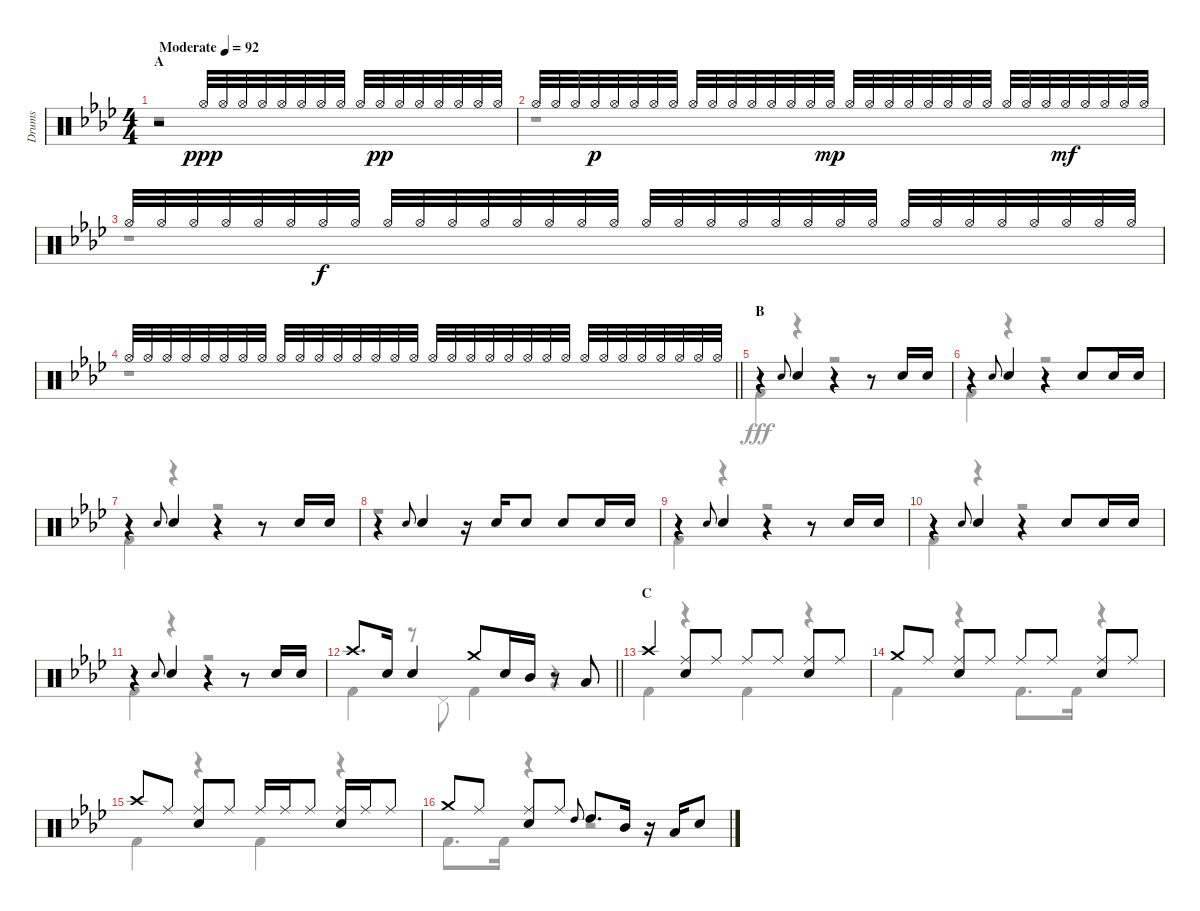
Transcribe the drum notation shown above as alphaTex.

\track ("Drums" "Drums") {instrument percussion}
\staff {score}
\articulation defaults
\voice
\ts (4 4)
\section ("" "A")
\tempo (92 "Moderate")
\clef neutral
\ks ab
r.2{dy ppp} "Hi-Hat (open)".32 "Hi-Hat (open)".32 "Hi-Hat (open)".32 "Hi-Hat (open)".32 "Hi-Hat (open)".32 "Hi-Hat (open)".32 "Hi-Hat (open)".32 "Hi-Hat (open)".32 "Hi-Hat (open)".32 "Hi-Hat (open)".32{dy pp} "Hi-Hat (open)".32 "Hi-Hat (open)".32 "Hi-Hat (open)".32 "Hi-Hat (open)".32 "Hi-Hat (open)".32 "Hi-Hat (open)".32 |
"Hi-Hat (open)".32 "Hi-Hat (open)".32 "Hi-Hat (open)".32 "Hi-Hat (open)".32{dy p} "Hi-Hat (open)".32 "Hi-Hat (open)".32 "Hi-Hat (open)".32 "Hi-Hat (open)".32 "Hi-Hat (open)".32 "Hi-Hat (open)".32 "Hi-Hat (open)".32 "Hi-Hat (open)".32 "Hi-Hat (open)".32 "Hi-Hat (open)".32 "Hi-Hat (open)".32 "Hi-Hat (open)".32{dy mp} "Hi-Hat (open)".32 "Hi-Hat (open)".32 "Hi-Hat (open)".32 "Hi-Hat (open)".32 "Hi-Hat (open)".32 "Hi-Hat (open)".32 "Hi-Hat (open)".32 "Hi-Hat (open)".32 "Hi-Hat (open)".32 "Hi-Hat (open)".32 "Hi-Hat (open)".32 "Hi-Hat (open)".32{dy mf} "Hi-Hat (open)".32 "Hi-Hat (open)".32 "Hi-Hat (open)".32 "Hi-Hat (open)".32 |
"Hi-Hat (open)".32 "Hi-Hat (open)".32 "Hi-Hat (open)".32 "Hi-Hat (open)".32 "Hi-Hat (open)".32 "Hi-Hat (open)".32 "Hi-Hat (open)".32{dy f} "Hi-Hat (open)".32 "Hi-Hat (open)".32 "Hi-Hat (open)".32 "Hi-Hat (open)".32 "Hi-Hat (open)".32 "Hi-Hat (open)".32 "Hi-Hat (open)".32 "Hi-Hat (open)".32 "Hi-Hat (open)".32 "Hi-Hat (open)".32 "Hi-Hat (open)".32 "Hi-Hat (open)".32 "Hi-Hat (open)".32 "Hi-Hat (open)".32 "Hi-Hat (open)".32 "Hi-Hat (open)".32 "Hi-Hat (open)".32 "Hi-Hat (open)".32 "Hi-Hat (open)".32 "Hi-Hat (open)".32 "Hi-Hat (open)".32 "Hi-Hat (open)".32 "Hi-Hat (open)".32 "Hi-Hat (open)".32 "Hi-Hat (open)".32 |
\barLineRight lightlight "Hi-Hat (open)".32 "Hi-Hat (open)".32 "Hi-Hat (open)".32 "Hi-Hat (open)".32 "Hi-Hat (open)".32 "Hi-Hat (open)".32 "Hi-Hat (open)".32 "Hi-Hat (open)".32 "Hi-Hat (open)".32 "Hi-Hat (open)".32 "Hi-Hat (open)".32 "Hi-Hat (open)".32 "Hi-Hat (open)".32 "Hi-Hat (open)".32 "Hi-Hat (open)".32 "Hi-Hat (open)".32 "Hi-Hat (open)".32 "Hi-Hat (open)".32 "Hi-Hat (open)".32 "Hi-Hat (open)".32 "Hi-Hat (open)".32 "Hi-Hat (open)".32 "Hi-Hat (open)".32 "Hi-Hat (open)".32 "Hi-Hat (open)".32 "Hi-Hat (open)".32 "Hi-Hat (open)".32 "Hi-Hat (open)".32 "Hi-Hat (open)".32 "Hi-Hat (open)".32 "Hi-Hat (open)".32 "Hi-Hat (open)".32
|
\section ("" "B")
r.4 "Snare (hit) 2".8{gr onbeat} "Snare (hit) 2".4 r.4 r.8 "Snare (hit) 2".16 "Snare (hit) 2".16 |
r.4 "Snare (hit) 2".8{gr onbeat} "Snare (hit) 2".4 r.4 "Snare (hit) 2".8 "Snare (hit) 2".16 "Snare (hit) 2".16 |
r.4 "Snare (hit) 2".8{gr onbeat} "Snare (hit) 2".4 r.4 r.8 "Snare (hit) 2".16 "Snare (hit) 2".16 |
r.4 "Snare (hit) 2".8{gr onbeat} "Snare (hit) 2".4 r.16 "Snare (hit) 2".16 "Snare (hit) 2".8 "Snare (hit) 2".8 "Snare (hit) 2".16 "Snare (hit) 2".16 |
r.4 "Snare (hit) 2".8{gr onbeat} "Snare (hit) 2".4 r.4 r.8 "Snare (hit) 2".16 "Snare (hit) 2".16 |
r.4 "Snare (hit) 2".8{gr onbeat} "Snare (hit) 2".4 r.4 "Snare (hit) 2".8 "Snare (hit) 2".16 "Snare (hit) 2".16 |
r.4 "Snare (hit) 2".8{gr onbeat} "Snare (hit) 2".4 r.4 r.8 "Snare (hit) 2".16 "Snare (hit) 2".16 |
\barLineRight lightlight "Crash high (hit)".8{d} "Snare (hit) 2".16 "Snare (hit) 2".4 "Crash medium (hit)".8 "Snare (hit) 2".16 "Mid Tom (hit)".16
r.8 "Low Tom (hit)".8 |
\section ("" "C")
"Crash high (hit)".4 ("Ride (middle)" "Snare (hit) 2").8 "Ride (middle)".8 "Ride (middle)".8 "Ride (middle)".8 ("Ride (middle)" "Snare (hit) 2").8 "Ride (middle)".8 |
"Crash medium (hit)".8 "Ride (middle)".8 ("Ride (middle)" "Snare (hit) 2").8 "Ride (middle)".8 "Ride (middle)".8 "Ride (middle)".8 ("Ride (middle)" "Snare (hit) 2").8 "Ride (middle)".8 |
"Crash high (hit)".8 "Ride (middle)".8 ("Ride (middle)" "Snare (hit) 2").8 "Ride (middle)".8 "Ride (middle)".16 "Ride (middle)".16 "Ride (middle)".8 ("Ride (middle)" "Snare (hit) 2").16 "Ride (middle)".16 "Ride (middle)".8 |
"Crash medium (hit)".8 "Ride (middle)".8 ("Ride (middle)" "Snare (hit) 2").8 "Ride (middle)".8 "High Tom (hit)".8{gr onbeat} "High Tom (hit)".8{d} "Mid Tom (hit)".16 r.16 "Low Tom (hit)".16 "Snare (hit) 2".8
\voice
\clef neutral
\ottava regular
\simile none
\ks ab
r.1{dy fff} |
r.1 |
r.1 |
\barLineRight lightlight
r.1 |
"Kick (hit) 2".4 r.4 r.2 |
"Kick (hit) 2".4 r.4 r.2 |
"Kick (hit) 2".4 r.4 r.2 |
r.1 |
"Kick (hit) 2".4 r.4 r.2 |
"Kick (hit) 2".4 r.4 r.2 |
"Kick (hit) 2".4 r.4 r.2 |
\barLineRight lightlight "Kick (hit) 2".4
r.8 "Pedal Hi-Hat (hit)".8 "Kick (hit) 2".4 r.4 |
"Kick (hit) 2".4 r.4 "Kick (hit) 2".4 r.4 |
"Kick (hit) 2".4 r.4 "Kick (hit) 2".8{d} "Kick (hit) 2".16 r.4 |
"Kick (hit) 2".4 r.4 "Kick (hit) 2".4 r.4 |
"Kick (hit) 2".8{d} "Kick (hit) 2".16 r.4 r.2
